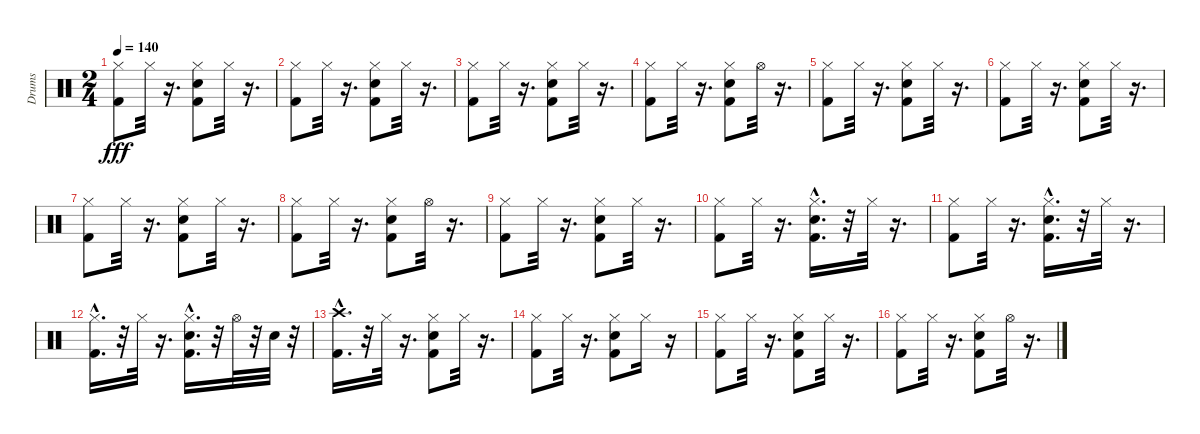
\track ("Drums" "Drums") {instrument percussion}
\staff {score}
\articulation defaults
\ts (2 4)
\tempo 140
\clef neutral
\ks c
("Kick (hit) 2" "Hi-Hat (closed)").8{dy fff} "Hi-Hat (closed)".32 r.16{d} ("Snare (hit) 2" "Kick (hit) 2" "Hi-Hat (closed)").8 "Hi-Hat (closed)".32 r.16{d} |
("Kick (hit) 2" "Hi-Hat (closed)").8 "Hi-Hat (closed)".32 r.16{d} ("Snare (hit) 2" "Kick (hit) 2" "Hi-Hat (closed)").8 "Hi-Hat (closed)".32 r.16{d} |
("Kick (hit) 2" "Hi-Hat (closed)").8 "Hi-Hat (closed)".32 r.16{d} ("Hi-Hat (closed)" "Snare (hit) 2" "Kick (hit) 2").8 "Hi-Hat (closed)".32 r.16{d} |
("Kick (hit) 2" "Hi-Hat (closed)").8 "Hi-Hat (closed)".32 r.16{d} ("Hi-Hat (closed)" "Snare (hit) 2" "Kick (hit) 2").8 "Hi-Hat (open)".32 r.16{d} |
("Kick (hit) 2" "Hi-Hat (closed)").8 "Hi-Hat (closed)".32 r.16{d} ("Snare (hit) 2" "Kick (hit) 2" "Hi-Hat (closed)").8 "Hi-Hat (closed)".32 r.16{d} |
("Kick (hit) 2" "Hi-Hat (closed)").8 "Hi-Hat (closed)".32 r.16{d} ("Snare (hit) 2" "Kick (hit) 2" "Hi-Hat (closed)").8 "Hi-Hat (closed)".32 r.16{d} |
("Kick (hit) 2" "Hi-Hat (closed)").8 "Hi-Hat (closed)".32 r.16{d} ("Kick (hit) 2" "Hi-Hat (closed)" "Snare (hit) 2").8 "Hi-Hat (closed)".32 r.16{d} |
("Kick (hit) 2" "Hi-Hat (closed)").8 "Hi-Hat (closed)".32 r.16{d} ("Kick (hit) 2" "Hi-Hat (closed)" "Snare (hit) 2").8 "Hi-Hat (open)".32 r.16{d} |
("Kick (hit) 2" "Hi-Hat (closed)").8 "Hi-Hat (closed)".32 r.16{d} ("Snare (hit) 2" "Kick (hit) 2" "Hi-Hat (closed)").8 "Hi-Hat (closed)".32 r.16{d} |
("Kick (hit) 2" "Hi-Hat (closed)").8 "Hi-Hat (closed)".32 r.16{d} ("Hi-Hat (closed)" "Snare (hit) 2"{hac} "Kick (hit) 2"{hac}).16{d} r.32 "Hi-Hat (closed)".32 r.16{d} |
("Kick (hit) 2" "Hi-Hat (closed)").8 "Hi-Hat (closed)".32 r.16{d} ("Snare (hit) 2"{hac} "Kick (hit) 2"{hac} "Hi-Hat (closed)").16{d} r.32 "Hi-Hat (closed)".32 r.16{d} |
("Kick (hit) 2"{hac} "Hi-Hat (closed)").16{d} r.32 "Hi-Hat (closed)".32 r.16{d} ("Snare (hit) 2"{hac} "Kick (hit) 2"{hac} "Hi-Hat (closed)").16{d} r.32 "Hi-Hat (open)".32 r.32 "Snare (hit) 2".32 r.32 |
("Kick (hit) 2"{hac} "Crash high (hit)").16{d} r.32 "Hi-Hat (closed)".32 r.16{d} ("Kick (hit) 2" "Snare (hit) 2" "Hi-Hat (closed)").8 "Hi-Hat (closed)".32 r.16{d} |
("Kick (hit) 2" "Hi-Hat (closed)").8 "Hi-Hat (closed)".32 r.16{d} ("Snare (hit) 2" "Kick (hit) 2" "Hi-Hat (closed)").8 "Hi-Hat (closed)".16 r.16 |
("Kick (hit) 2" "Hi-Hat (closed)").8 "Hi-Hat (closed)".32 r.16{d} ("Snare (hit) 2" "Kick (hit) 2" "Hi-Hat (closed)").8 "Hi-Hat (closed)".32 r.16{d} |
("Kick (hit) 2" "Hi-Hat (closed)").8 "Hi-Hat (closed)".32 r.16{d} ("Kick (hit) 2" "Snare (hit) 2" "Hi-Hat (closed)").8 "Hi-Hat (open)".32 r.16{d}
